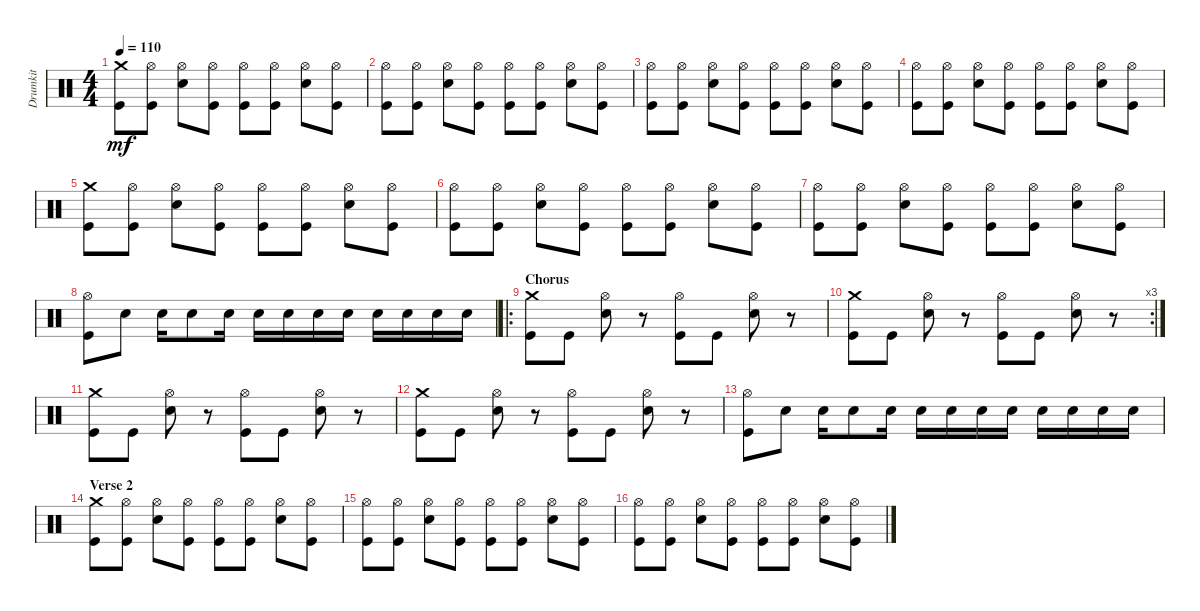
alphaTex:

\track ("Drumkit" "Drumkit") {instrument percussion}
\staff {score}
\articulation defaults
\ts (4 4)
\tempo 110
\clef neutral
\ks c
("Kick (hit)" "Crash medium (hit)").8{dy mf} ("Kick (hit)" "Hi-Hat (open)").8 ("Hi-Hat (open)" "Snare (hit) 2").8 ("Kick (hit)" "Hi-Hat (open)").8 ("Kick (hit)" "Hi-Hat (open)").8 ("Kick (hit)" "Hi-Hat (open)").8 ("Hi-Hat (open)" "Snare (hit) 2").8 ("Kick (hit)" "Hi-Hat (open)").8 |
("Kick (hit)" "Hi-Hat (open)").8 ("Kick (hit)" "Hi-Hat (open)").8 ("Hi-Hat (open)" "Snare (hit) 2").8 ("Kick (hit)" "Hi-Hat (open)").8 ("Kick (hit)" "Hi-Hat (open)").8 ("Kick (hit)" "Hi-Hat (open)").8 ("Hi-Hat (open)" "Snare (hit) 2").8 ("Kick (hit)" "Hi-Hat (open)").8 |
("Kick (hit)" "Hi-Hat (open)").8 ("Kick (hit)" "Hi-Hat (open)").8 ("Hi-Hat (open)" "Snare (hit) 2").8 ("Kick (hit)" "Hi-Hat (open)").8 ("Kick (hit)" "Hi-Hat (open)").8 ("Kick (hit)" "Hi-Hat (open)").8 ("Hi-Hat (open)" "Snare (hit) 2").8 ("Kick (hit)" "Hi-Hat (open)").8 |
("Kick (hit)" "Hi-Hat (open)").8 ("Kick (hit)" "Hi-Hat (open)").8 ("Hi-Hat (open)" "Snare (hit) 2").8 ("Kick (hit)" "Hi-Hat (open)").8 ("Kick (hit)" "Hi-Hat (open)").8 ("Kick (hit)" "Hi-Hat (open)").8 ("Hi-Hat (open)" "Snare (hit) 2").8 ("Kick (hit)" "Hi-Hat (open)").8 |
("Kick (hit)" "Crash medium (hit)").8 ("Kick (hit)" "Hi-Hat (open)").8 ("Hi-Hat (open)" "Snare (hit) 2").8 ("Kick (hit)" "Hi-Hat (open)").8 ("Kick (hit)" "Hi-Hat (open)").8 ("Kick (hit)" "Hi-Hat (open)").8 ("Hi-Hat (open)" "Snare (hit) 2").8 ("Kick (hit)" "Hi-Hat (open)").8 |
("Kick (hit)" "Hi-Hat (open)").8 ("Kick (hit)" "Hi-Hat (open)").8 ("Hi-Hat (open)" "Snare (hit) 2").8 ("Kick (hit)" "Hi-Hat (open)").8 ("Kick (hit)" "Hi-Hat (open)").8 ("Kick (hit)" "Hi-Hat (open)").8 ("Hi-Hat (open)" "Snare (hit) 2").8 ("Kick (hit)" "Hi-Hat (open)").8 |
("Kick (hit)" "Hi-Hat (open)").8 ("Kick (hit)" "Hi-Hat (open)").8 ("Hi-Hat (open)" "Snare (hit) 2").8 ("Kick (hit)" "Hi-Hat (open)").8 ("Kick (hit)" "Hi-Hat (open)").8 ("Kick (hit)" "Hi-Hat (open)").8 ("Hi-Hat (open)" "Snare (hit) 2").8 ("Kick (hit)" "Hi-Hat (open)").8 |
("Kick (hit)" "Hi-Hat (open)").8 "Snare (hit) 2".8 "Snare (hit) 2".16 "Snare (hit) 2".8 "Snare (hit) 2".16 "Snare (hit) 2".16 "Snare (hit) 2".16 "Snare (hit) 2".16 "Snare (hit) 2".16 "Snare (hit) 2".16 "Snare (hit) 2".16 "Snare (hit) 2".16 "Snare (hit) 2".16 |
\ro
\section ("" "Chorus")
("Crash medium (hit)" "Kick (hit)").8 "Kick (hit)".8 ("Snare (hit) 2" "Hi-Hat (open)").8 r.8 ("Hi-Hat (open)" "Kick (hit)").8 "Kick (hit)".8 ("Hi-Hat (open)" "Snare (hit) 2").8 r.8 |
\rc 3
("Crash medium (hit)" "Kick (hit)").8 "Kick (hit)".8 ("Snare (hit) 2" "Hi-Hat (open)").8 r.8 ("Hi-Hat (open)" "Kick (hit)").8 "Kick (hit)".8 ("Hi-Hat (open)" "Snare (hit) 2").8 r.8 |
("Crash medium (hit)" "Kick (hit)").8 "Kick (hit)".8 ("Snare (hit) 2" "Hi-Hat (open)").8 r.8 ("Hi-Hat (open)" "Kick (hit)").8 "Kick (hit)".8 ("Hi-Hat (open)" "Snare (hit) 2").8 r.8 |
("Crash medium (hit)" "Kick (hit)").8 "Kick (hit)".8 ("Snare (hit) 2" "Hi-Hat (open)").8 r.8 ("Hi-Hat (open)" "Kick (hit)").8 "Kick (hit)".8 ("Hi-Hat (open)" "Snare (hit) 2").8 r.8 |
("Kick (hit)" "Hi-Hat (open)").8 "Snare (hit) 2".8 "Snare (hit) 2".16 "Snare (hit) 2".8 "Snare (hit) 2".16 "Snare (hit) 2".16 "Snare (hit) 2".16 "Snare (hit) 2".16 "Snare (hit) 2".16 "Snare (hit) 2".16 "Snare (hit) 2".16 "Snare (hit) 2".16 "Snare (hit) 2".16 |
\section ("" "Verse 2")
("Kick (hit)" "Crash medium (hit)").8 ("Kick (hit)" "Hi-Hat (open)").8 ("Hi-Hat (open)" "Snare (hit) 2").8 ("Kick (hit)" "Hi-Hat (open)").8 ("Kick (hit)" "Hi-Hat (open)").8 ("Kick (hit)" "Hi-Hat (open)").8 ("Hi-Hat (open)" "Snare (hit) 2").8 ("Kick (hit)" "Hi-Hat (open)").8 |
("Kick (hit)" "Hi-Hat (open)").8 ("Kick (hit)" "Hi-Hat (open)").8 ("Hi-Hat (open)" "Snare (hit) 2").8 ("Kick (hit)" "Hi-Hat (open)").8 ("Kick (hit)" "Hi-Hat (open)").8 ("Kick (hit)" "Hi-Hat (open)").8 ("Hi-Hat (open)" "Snare (hit) 2").8 ("Kick (hit)" "Hi-Hat (open)").8 |
("Kick (hit)" "Hi-Hat (open)").8 ("Kick (hit)" "Hi-Hat (open)").8 ("Hi-Hat (open)" "Snare (hit) 2").8 ("Kick (hit)" "Hi-Hat (open)").8 ("Kick (hit)" "Hi-Hat (open)").8 ("Kick (hit)" "Hi-Hat (open)").8 ("Hi-Hat (open)" "Snare (hit) 2").8 ("Kick (hit)" "Hi-Hat (open)").8
